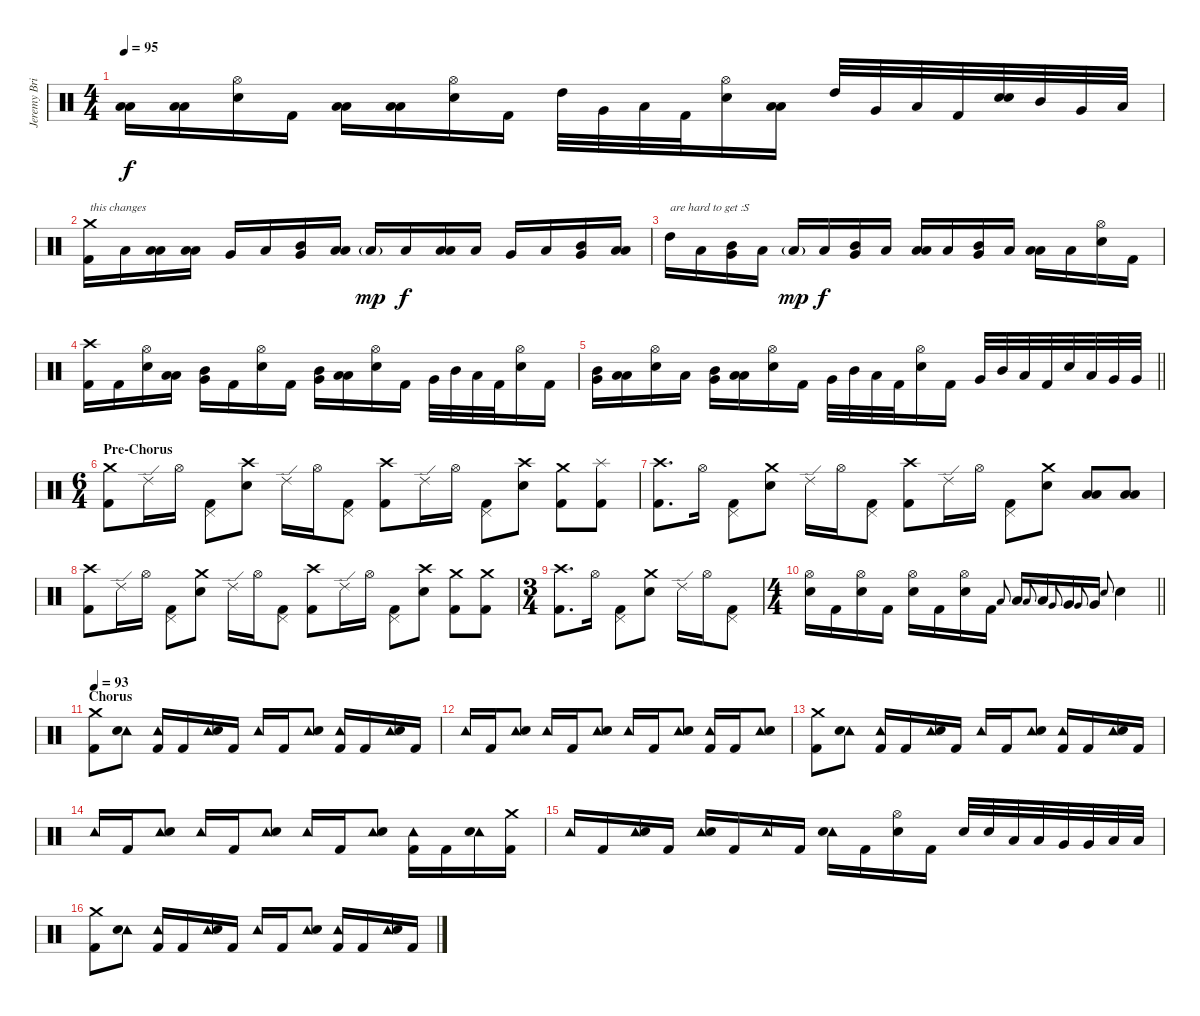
\track ("Jeremy Brian [Drums]" "Jeremy Bri") {instrument percussion}
\staff {score}
\articulation defaults
\ts (4 4)
\tempo 95
\clef neutral
\ks c
("Low Floor Tom (hit)" "Low Tom (hit)").16{dy f} ("Low Floor Tom (hit)" "Low Tom (hit)").16 ("Hi-Hat (open)" "Electric Snare (hit)").16 "Kick (hit) 2".16 ("Low Floor Tom (hit)" "Low Tom (hit)").16 ("Low Floor Tom (hit)" "Low Tom (hit)").16 ("Hi-Hat (open)" "Electric Snare (hit)").16 "Kick (hit) 2".16 "High Tom (hit)".32{balance 16} "Very Low Tom (hit)".32{balance 0} "Low Tom (hit)".32{balance 8} "Kick (hit) 2".32 ("Hi-Hat (open)" "Electric Snare (hit)").16 ("Low Floor Tom (hit)" "Low Tom (hit)").16 "High Tom (hit)".32{balance 16} "Very Low Tom (hit)".32{balance 0} "Low Tom (hit)".32{balance 8} "Kick (hit) 2".32 ("Hand Clap (hit)" "Electric Snare (hit)").32 "Mid Tom (hit)".32{balance 0} "Very Low Tom (hit)".32{balance 8} "Low Floor Tom (hit)".32 |
("Crash medium (hit)" "Kick (hit) 2").16{txt "this changes"} "Low Floor Tom (hit)".16 ("Low Floor Tom (hit)" "Low Tom (hit)").16 ("Low Floor Tom (hit)" "Low Tom (hit)").16 "Very Low Tom (hit)".16 "Low Floor Tom (hit)".16 ("Very Low Tom (hit)" "Mid Tom (hit)").16 ("Low Floor Tom (hit)" "Low Tom (hit)").16 "Low Floor Tom (hit)"{g}.16{dy mp} "Low Floor Tom (hit)".16{dy f} ("Low Floor Tom (hit)" "Low Tom (hit)").16 "Low Floor Tom (hit)".16 "Very Low Tom (hit)".16 "Low Floor Tom (hit)".16 ("Very Low Tom (hit)" "Mid Tom (hit)").16 ("Low Floor Tom (hit)" "Low Tom (hit)").16 |
"High Tom (hit)".16{txt "are hard to get :S"} "Low Floor Tom (hit)".16 ("Very Low Tom (hit)" "Mid Tom (hit)").16 "Low Floor Tom (hit)".16 "Low Tom (hit)"{g}.16{dy mp} "Low Floor Tom (hit)".16{dy f} ("Very Low Tom (hit)" "Mid Tom (hit)").16 "Low Floor Tom (hit)".16 ("Low Floor Tom (hit)" "Low Tom (hit)").16 "Low Floor Tom (hit)".16 ("Very Low Tom (hit)" "Mid Tom (hit)").16 "Low Floor Tom (hit)".16 ("Low Floor Tom (hit)" "Low Tom (hit)").16 "Low Floor Tom (hit)".16 ("Hi-Hat (open)" "Electric Snare (hit)").16 "Kick (hit) 2".16 |
("Crash high (hit)" "Kick (hit) 2").16 "Kick (hit) 2".16 ("Hi-Hat (open)" "Electric Snare (hit)").16 ("Low Floor Tom (hit)" "Low Tom (hit)").16 ("Very Low Tom (hit)" "Mid Tom (hit)").16 "Kick (hit) 2".16 ("Hi-Hat (open)" "Electric Snare (hit)").16 "Kick (hit) 2".16 ("Very Low Tom (hit)" "Mid Tom (hit)").16 ("Low Floor Tom (hit)" "Low Tom (hit)").16 ("Hi-Hat (open)" "Electric Snare (hit)").16 "Kick (hit) 2".16 "Very Low Tom (hit)".32{balance 16} "Mid Tom (hit)".32{balance 0} "Low Tom (hit)".32{balance 8} "Kick (hit) 2".32 ("Hi-Hat (open)" "Electric Snare (hit)").16 "Kick (hit) 2".16 |
\barLineRight lightlight
("Very Low Tom (hit)" "Mid Tom (hit)").16 ("Low Floor Tom (hit)" "Low Tom (hit)").16 ("Hi-Hat (open)" "Electric Snare (hit)").16 "Low Floor Tom (hit)".16 ("Very Low Tom (hit)" "Mid Tom (hit)").16 ("Low Floor Tom (hit)" "Low Tom (hit)").16 ("Hi-Hat (open)" "Electric Snare (hit)").16 "Kick (hit) 2".16 "Very Low Tom (hit)".32{balance 16} "Mid Tom (hit)".32{balance 0} "Low Tom (hit)".32{balance 8} "Kick (hit) 2".32 ("Hi-Hat (open)" "Electric Snare (hit)").16 "Kick (hit) 2".16 "Very Low Tom (hit)".32{balance 16} "Mid Tom (hit)".32{balance 0} "Low Tom (hit)".32{balance 8} "Kick (hit) 2".32 "Electric Snare (hit)".32 "Low Tom (hit)".32 "Very Low Tom (hit)".32 "Very Low Tom (hit)".32 |
\ts (6 4)
\section ("" "Pre-Chorus")
("Crash medium (hit)" "Kick (hit) 2").8 "Ride (edge) 2".16 "Hi-Hat (open)".16 ("Pedal Hi-Hat (hit)" "Kick (hit) 2").8 ("Crash high (hit)" "Electric Snare (hit)").8 "Ride (edge) 2".16 "Hi-Hat (open)".16 ("Pedal Hi-Hat (hit)" "Kick (hit) 2").8 ("Crash high (hit)" "Kick (hit) 2").8 "Ride (edge) 2".16 "Hi-Hat (open)".16 ("Pedal Hi-Hat (hit)" "Kick (hit) 2").8 ("Crash high (hit)" "Electric Snare (hit)").8 ("Crash medium (hit)" "Kick (hit) 2").8 ("Splash (hit)" "Kick (hit) 2").8 |
("Crash high (hit)" "Kick (hit) 2").8{d} "Hi-Hat (open)".16 ("Pedal Hi-Hat (hit)" "Kick (hit) 2").8 ("Crash medium (hit)" "Electric Snare (hit)").8 "Ride (edge) 2".16 "Hi-Hat (open)".16 ("Pedal Hi-Hat (hit)" "Kick (hit) 2").8 ("Crash high (hit)" "Kick (hit) 2").8 "Ride (edge) 2".16 "Hi-Hat (open)".16 ("Pedal Hi-Hat (hit)" "Kick (hit) 2").8 ("Crash medium (hit)" "Electric Snare (hit)").8 ("Low Floor Tom (hit)" "Low Tom (hit)").8 ("Low Floor Tom (hit)" "Low Tom (hit)").8 |
("Crash high (hit)" "Kick (hit) 2").8 "Ride (edge) 2".16 "Hi-Hat (open)".16 ("Pedal Hi-Hat (hit)" "Kick (hit) 2").8 ("Crash medium (hit)" "Electric Snare (hit)").8 "Ride (edge) 2".16 "Hi-Hat (open)".16 ("Pedal Hi-Hat (hit)" "Kick (hit) 2").8 ("Crash high (hit)" "Kick (hit) 2").8 "Ride (edge) 2".16 "Hi-Hat (open)".16 ("Pedal Hi-Hat (hit)" "Kick (hit) 2").8 ("Crash high (hit)" "Electric Snare (hit)").8 ("Crash medium (hit)" "Kick (hit) 2").8 ("Crash medium (hit)" "Kick (hit) 2").8 |
\ts (3 4)
("Crash high (hit)" "Kick (hit) 2").8{d} "Hi-Hat (open)".16 ("Pedal Hi-Hat (hit)" "Kick (hit) 2").8 ("Crash medium (hit)" "Electric Snare (hit)").8 "Ride (edge) 2".16 "Hi-Hat (open)".16 ("Pedal Hi-Hat (hit)" "Kick (hit) 2").8 |
\ts (4 4)
\barLineRight lightlight
("Hi-Hat (open)" "Electric Snare (hit)").16 "Kick (hit) 2".16 ("Hi-Hat (open)" "Electric Snare (hit)").16 "Kick (hit) 2".16 ("Hi-Hat (open)" "Electric Snare (hit)").16 "Kick (hit) 2".16 ("Hi-Hat (open)" "Electric Snare (hit)").16 "Kick (hit) 2".16 "Low Tom (hit)".8{gr onbeat} "Low Tom (hit)".16 "Low Floor Tom (hit)".8{gr onbeat} "Low Floor Tom (hit)".16 "Very Low Tom (hit)".8{gr onbeat} "Very Low Tom (hit)".16 "Very Low Tom (hit)".8{gr onbeat} "Very Low Tom (hit)".16 "Electric Snare (hit)".8{gr onbeat} "Electric Snare (hit)".4 |
\section ("" "Chorus")
\tempo 93
("Crash medium (hit)" "Kick (hit) 2").8 ("Tambourine (hit)" "Electric Snare (hit)").8 ("Tambourine (hit)" "Kick (hit) 2").16 "Kick (hit) 2".16 ("Tambourine (hit)" "Electric Snare (hit)").16 "Kick (hit) 2".16 "Tambourine (hit)".16 "Kick (hit) 2".16 ("Tambourine (hit)" "Electric Snare (hit)").8 ("Tambourine (hit)" "Kick (hit) 2").16 "Kick (hit) 2".16 ("Tambourine (hit)" "Electric Snare (hit)").16 "Kick (hit) 2".16 |
"Tambourine (hit)".16 "Kick (hit) 2".16 ("Tambourine (hit)" "Electric Snare (hit)").8 "Tambourine (hit)".16 "Kick (hit) 2".16 ("Tambourine (hit)" "Electric Snare (hit)").8 "Tambourine (hit)".16 "Kick (hit) 2".16 ("Tambourine (hit)" "Electric Snare (hit)").8 ("Tambourine (hit)" "Kick (hit) 2").16 "Kick (hit) 2".16 ("Tambourine (hit)" "Electric Snare (hit)").8 |
("Crash medium (hit)" "Kick (hit) 2").8 ("Tambourine (hit)" "Electric Snare (hit)").8 ("Tambourine (hit)" "Kick (hit) 2").16 "Kick (hit) 2".16 ("Tambourine (hit)" "Electric Snare (hit)").16 "Kick (hit) 2".16 "Tambourine (hit)".16 "Kick (hit) 2".16 ("Tambourine (hit)" "Electric Snare (hit)").8 ("Tambourine (hit)" "Kick (hit) 2").16 "Kick (hit) 2".16 ("Tambourine (hit)" "Electric Snare (hit)").16 "Kick (hit) 2".16 |
"Tambourine (hit)".16 "Kick (hit) 2".16 ("Tambourine (hit)" "Electric Snare (hit)").8 "Tambourine (hit)".16 "Kick (hit) 2".16 ("Tambourine (hit)" "Electric Snare (hit)").8 "Tambourine (hit)".16 "Kick (hit) 2".16 ("Tambourine (hit)" "Electric Snare (hit)").8 ("Tambourine (hit)" "Kick (hit) 2").16 "Kick (hit) 2".16 ("Tambourine (hit)" "Electric Snare (hit)").16 ("Crash medium (hit)" "Kick (hit) 2").16 |
"Tambourine (hit)".16 "Kick (hit) 2".16 ("Tambourine (hit)" "Electric Snare (hit)").16 "Kick (hit) 2".16 ("Tambourine (hit)" "Electric Snare (hit)").16 "Kick (hit) 2".16 "Tambourine (hit)".16 "Kick (hit) 2".16 ("Tambourine (hit)" "Electric Snare (hit)").16 "Kick (hit) 2".16 ("Hi-Hat (open)" "Electric Snare (hit)").16 "Kick (hit) 2".16 "Electric Snare (hit)".32 "Electric Snare (hit)".32 "Low Tom (hit)".32{balance 3} "Low Tom (hit)".32 "Very Low Tom (hit)".32{balance 14} "Very Low Tom (hit)".32 "Low Floor Tom (hit)".32 "Low Floor Tom (hit)".32 |
("Crash medium (hit)" "Kick (hit) 2").8{balance 8} ("Tambourine (hit)" "Electric Snare (hit)").8 ("Tambourine (hit)" "Kick (hit) 2").16 "Kick (hit) 2".16 ("Tambourine (hit)" "Electric Snare (hit)").16 "Kick (hit) 2".16 "Tambourine (hit)".16 "Kick (hit) 2".16 ("Tambourine (hit)" "Electric Snare (hit)").8 ("Tambourine (hit)" "Kick (hit) 2").16 "Kick (hit) 2".16 ("Tambourine (hit)" "Electric Snare (hit)").16 "Kick (hit) 2".16
